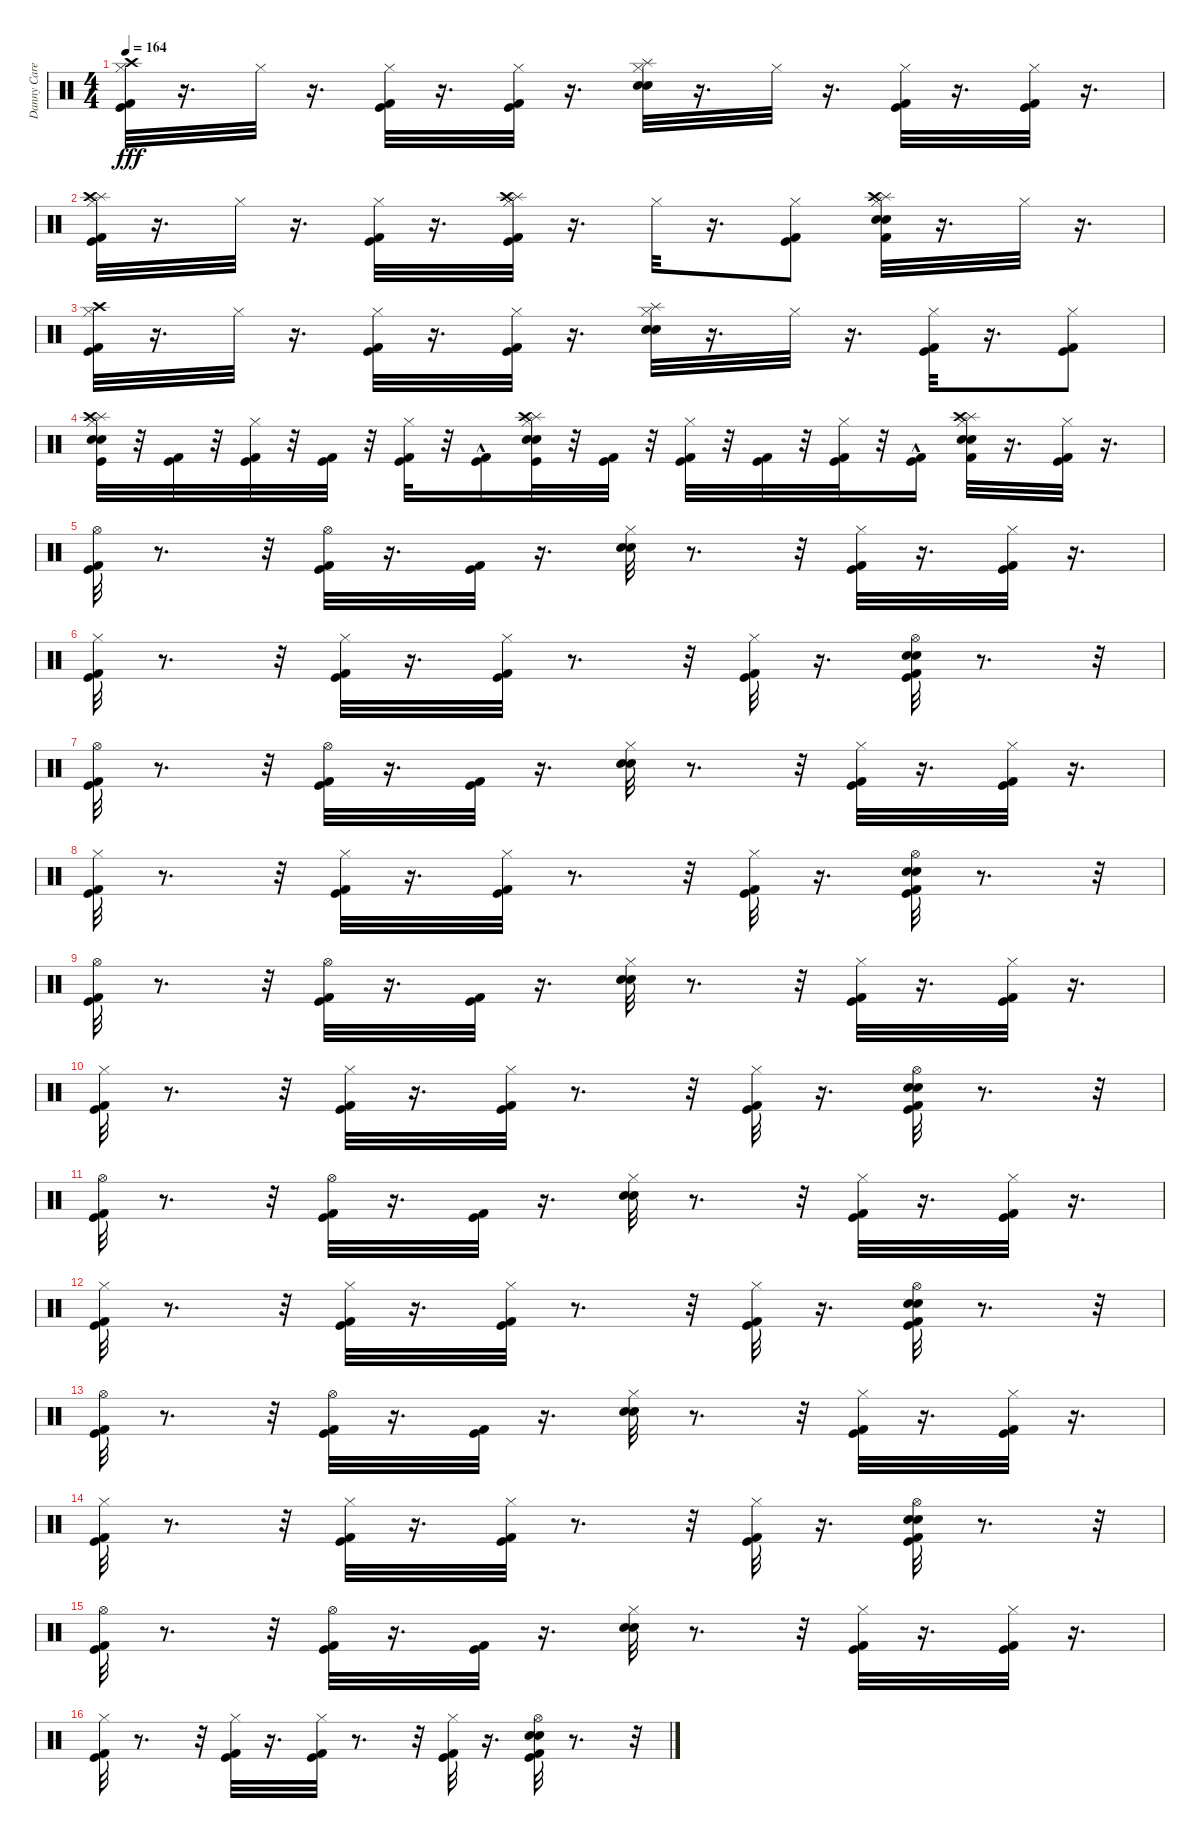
\track ("Danny Carey" "Danny Care") {instrument percussion}
\staff {score}
\articulation defaults
\ts (4 4)
\tempo 164
\clef neutral
\ks c
("Crash high (hit)" "Hi-Hat (closed)" "Kick (hit)" "Kick (hit) 2").32{dy fff} r.16{d} "Hi-Hat (closed)".32 r.16{d} ("Hi-Hat (closed)" "Kick (hit)" "Kick (hit) 2").32 r.16{d} ("Hi-Hat (closed)" "Kick (hit)" "Kick (hit) 2").32 r.16{d} ("Splash (hit)" "Hi-Hat (closed)" "Electric Snare (hit)" "Snare (hit) 2").32 r.16{d} "Hi-Hat (closed)".32 r.16{d} ("Hi-Hat (closed)" "Kick (hit)" "Kick (hit) 2").32 r.16{d} ("Hi-Hat (closed)" "Kick (hit) 2" "Kick (hit)").32 r.16{d} |
("Splash (hit)" "Crash high (hit)" "Hi-Hat (closed)" "Kick (hit)" "Kick (hit) 2").32 r.16{d} "Hi-Hat (closed)".32 r.16{d} ("Hi-Hat (closed)" "Kick (hit)" "Kick (hit) 2").32 r.16{d} ("Splash (hit)" "Crash high (hit)" "Hi-Hat (closed)" "Kick (hit)" "Kick (hit) 2").32 r.16{d} "Hi-Hat (closed)".32 r.16{d} ("Hi-Hat (closed)" "Kick (hit)" "Kick (hit) 2").8 ("Splash (hit)" "Crash high (hit)" "Electric Snare (hit)" "Snare (hit) 2" "Hi-Hat (closed)" "Kick (hit) 2").32 r.16{d} "Hi-Hat (closed)".32 r.16{d} |
("Crash high (hit)" "Hi-Hat (closed)" "Kick (hit)" "Kick (hit) 2").32 r.16{d} "Hi-Hat (closed)".32 r.16{d} ("Hi-Hat (closed)" "Kick (hit)" "Kick (hit) 2").32 r.16{d} ("Hi-Hat (closed)" "Kick (hit)" "Kick (hit) 2").32 r.16{d} ("Splash (hit)" "Hi-Hat (closed)" "Electric Snare (hit)" "Snare (hit) 2").32 r.16{d} "Hi-Hat (closed)".32 r.16{d} ("Hi-Hat (closed)" "Kick (hit)" "Kick (hit) 2").32 r.16{d} ("Hi-Hat (closed)" "Kick (hit) 2" "Kick (hit)").8 |
("Snare (hit) 2" "Electric Snare (hit)" "Splash (hit)" "Crash high (hit)" "Hi-Hat (closed)" "Kick (hit)").32 r.32 ("Kick (hit)" "Kick (hit) 2").32 r.32 ("Kick (hit)" "Kick (hit) 2" "Hi-Hat (closed)").32 r.32 ("Kick (hit)" "Kick (hit) 2").32 r.32 ("Hi-Hat (closed)" "Kick (hit)" "Kick (hit) 2").32 r.32 ("Kick (hit)" "Kick (hit) 2"{hac}).16 ("Snare (hit) 2" "Electric Snare (hit)" "Splash (hit)" "Crash high (hit)" "Hi-Hat (closed)" "Kick (hit)").32 r.32 ("Kick (hit)" "Kick (hit) 2").32 r.32 ("Kick (hit)" "Kick (hit) 2" "Hi-Hat (closed)").32 r.32 ("Kick (hit)" "Kick (hit) 2").32 r.32 ("Hi-Hat (closed)" "Kick (hit)" "Kick (hit) 2").32 r.32 ("Kick (hit)"{hac} "Kick (hit) 2").16 ("Splash (hit)" "Crash high (hit)" "Electric Snare (hit)" "Snare (hit) 2" "Hi-Hat (closed)" "Kick (hit) 2").32 r.16{d} ("Kick (hit)" "Kick (hit) 2" "Hi-Hat (closed)").32 r.16{d} |
("Hi-Hat (open)" "Kick (hit)" "Kick (hit) 2").32 r.8{d} r.32 ("Hi-Hat (open)" "Kick (hit)" "Kick (hit) 2").32 r.16{d} ("Kick (hit)" "Kick (hit) 2").32 r.16{d} ("Hi-Hat (closed)" "Electric Snare (hit)" "Snare (hit) 2").32 r.8{d} r.32 ("Hi-Hat (closed)" "Kick (hit)" "Kick (hit) 2").32 r.16{d} ("Hi-Hat (closed)" "Kick (hit) 2" "Kick (hit)").32 r.16{d} |
("Hi-Hat (closed)" "Kick (hit)" "Kick (hit) 2").32 r.8{d} r.32 ("Hi-Hat (closed)" "Kick (hit)" "Kick (hit) 2").32 r.16{d} ("Hi-Hat (closed)" "Kick (hit)" "Kick (hit) 2").32 r.8{d} r.32 ("Hi-Hat (closed)" "Kick (hit)" "Kick (hit) 2").32 r.16{d} ("Hi-Hat (open)" "Electric Snare (hit)" "Snare (hit) 2" "Kick (hit) 2" "Kick (hit)").32 r.8{d} r.32 |
("Hi-Hat (open)" "Kick (hit)" "Kick (hit) 2").32 r.8{d} r.32 ("Hi-Hat (open)" "Kick (hit)" "Kick (hit) 2").32 r.16{d} ("Kick (hit)" "Kick (hit) 2").32 r.16{d} ("Hi-Hat (closed)" "Electric Snare (hit)" "Snare (hit) 2").32 r.8{d} r.32 ("Hi-Hat (closed)" "Kick (hit)" "Kick (hit) 2").32 r.16{d} ("Hi-Hat (closed)" "Kick (hit) 2" "Kick (hit)").32 r.16{d} |
("Hi-Hat (closed)" "Kick (hit)" "Kick (hit) 2").32 r.8{d} r.32 ("Hi-Hat (closed)" "Kick (hit)" "Kick (hit) 2").32 r.16{d} ("Hi-Hat (closed)" "Kick (hit)" "Kick (hit) 2").32 r.8{d} r.32 ("Hi-Hat (closed)" "Kick (hit)" "Kick (hit) 2").32 r.16{d} ("Hi-Hat (open)" "Electric Snare (hit)" "Snare (hit) 2" "Kick (hit) 2" "Kick (hit)").32 r.8{d} r.32 |
("Hi-Hat (open)" "Kick (hit)" "Kick (hit) 2").32 r.8{d} r.32 ("Hi-Hat (open)" "Kick (hit)" "Kick (hit) 2").32 r.16{d} ("Kick (hit)" "Kick (hit) 2").32 r.16{d} ("Hi-Hat (closed)" "Electric Snare (hit)" "Snare (hit) 2").32 r.8{d} r.32 ("Hi-Hat (closed)" "Kick (hit)" "Kick (hit) 2").32 r.16{d} ("Hi-Hat (closed)" "Kick (hit) 2" "Kick (hit)").32 r.16{d} |
("Hi-Hat (closed)" "Kick (hit)" "Kick (hit) 2").32 r.8{d} r.32 ("Hi-Hat (closed)" "Kick (hit)" "Kick (hit) 2").32 r.16{d} ("Hi-Hat (closed)" "Kick (hit)" "Kick (hit) 2").32 r.8{d} r.32 ("Hi-Hat (closed)" "Kick (hit)" "Kick (hit) 2").32 r.16{d} ("Hi-Hat (open)" "Electric Snare (hit)" "Snare (hit) 2" "Kick (hit) 2" "Kick (hit)").32 r.8{d} r.32 |
("Hi-Hat (open)" "Kick (hit)" "Kick (hit) 2").32 r.8{d} r.32 ("Hi-Hat (open)" "Kick (hit)" "Kick (hit) 2").32 r.16{d} ("Kick (hit)" "Kick (hit) 2").32 r.16{d} ("Hi-Hat (closed)" "Electric Snare (hit)" "Snare (hit) 2").32 r.8{d} r.32 ("Hi-Hat (closed)" "Kick (hit)" "Kick (hit) 2").32 r.16{d} ("Hi-Hat (closed)" "Kick (hit) 2" "Kick (hit)").32 r.16{d} |
("Hi-Hat (closed)" "Kick (hit)" "Kick (hit) 2").32 r.8{d} r.32 ("Hi-Hat (closed)" "Kick (hit)" "Kick (hit) 2").32 r.16{d} ("Hi-Hat (closed)" "Kick (hit)" "Kick (hit) 2").32 r.8{d} r.32 ("Hi-Hat (closed)" "Kick (hit)" "Kick (hit) 2").32 r.16{d} ("Hi-Hat (open)" "Electric Snare (hit)" "Snare (hit) 2" "Kick (hit) 2" "Kick (hit)").32 r.8{d} r.32 |
("Hi-Hat (open)" "Kick (hit)" "Kick (hit) 2").32 r.8{d} r.32 ("Hi-Hat (open)" "Kick (hit)" "Kick (hit) 2").32 r.16{d} ("Kick (hit)" "Kick (hit) 2").32 r.16{d} ("Hi-Hat (closed)" "Electric Snare (hit)" "Snare (hit) 2").32 r.8{d} r.32 ("Hi-Hat (closed)" "Kick (hit)" "Kick (hit) 2").32 r.16{d} ("Hi-Hat (closed)" "Kick (hit) 2" "Kick (hit)").32 r.16{d} |
("Hi-Hat (closed)" "Kick (hit)" "Kick (hit) 2").32 r.8{d} r.32 ("Hi-Hat (closed)" "Kick (hit)" "Kick (hit) 2").32 r.16{d} ("Hi-Hat (closed)" "Kick (hit)" "Kick (hit) 2").32 r.8{d} r.32 ("Hi-Hat (closed)" "Kick (hit)" "Kick (hit) 2").32 r.16{d} ("Hi-Hat (open)" "Electric Snare (hit)" "Snare (hit) 2" "Kick (hit) 2" "Kick (hit)").32 r.8{d} r.32 |
("Hi-Hat (open)" "Kick (hit)" "Kick (hit) 2").32 r.8{d} r.32 ("Hi-Hat (open)" "Kick (hit)" "Kick (hit) 2").32 r.16{d} ("Kick (hit)" "Kick (hit) 2").32 r.16{d} ("Hi-Hat (closed)" "Electric Snare (hit)" "Snare (hit) 2").32 r.8{d} r.32 ("Hi-Hat (closed)" "Kick (hit)" "Kick (hit) 2").32 r.16{d} ("Hi-Hat (closed)" "Kick (hit) 2" "Kick (hit)").32 r.16{d} |
("Hi-Hat (closed)" "Kick (hit)" "Kick (hit) 2").32 r.8{d} r.32 ("Hi-Hat (closed)" "Kick (hit)" "Kick (hit) 2").32 r.16{d} ("Hi-Hat (closed)" "Kick (hit)" "Kick (hit) 2").32 r.8{d} r.32 ("Hi-Hat (closed)" "Kick (hit)" "Kick (hit) 2").32 r.16{d} ("Hi-Hat (open)" "Electric Snare (hit)" "Snare (hit) 2" "Kick (hit) 2" "Kick (hit)").32 r.8{d} r.32
